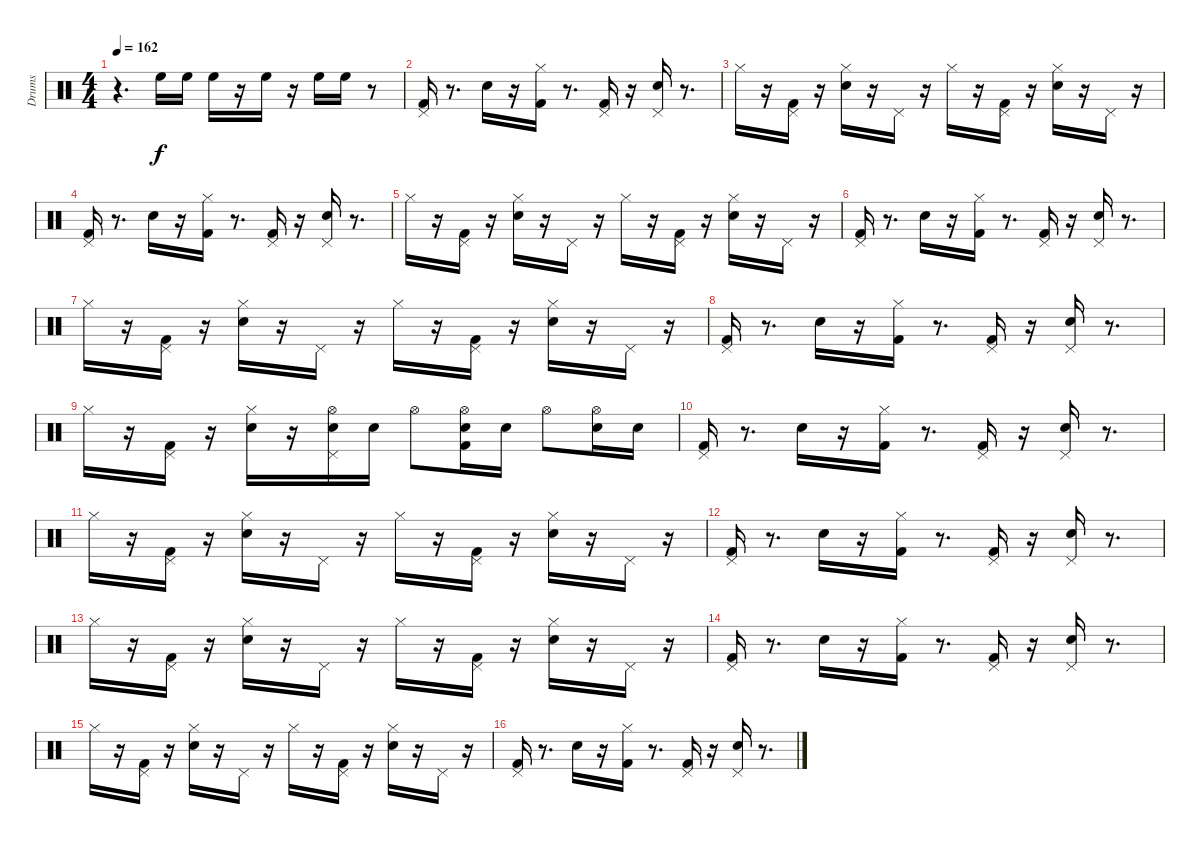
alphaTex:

\track ("Drums" "Drums") {instrument percussion}
\staff {score}
\articulation defaults
\ts (4 4)
\tempo 162
\clef neutral
\ks c
r.4{d dy f} "High Floor Tom (hit)".16 "High Floor Tom (hit)".16 "High Floor Tom (hit)".16 r.16 "High Floor Tom (hit)".16 r.16 "High Floor Tom (hit)".16 "High Floor Tom (hit)".16 r.8 |
("Kick (hit) 2" "Pedal Hi-Hat (hit)").16 r.8{d} "Electric Snare (hit)".16 r.16 ("Kick (hit) 2" "Hi-Hat (closed)").16 r.8{d} ("Kick (hit) 2" "Pedal Hi-Hat (hit)").16 r.16 ("Pedal Hi-Hat (hit)" "Electric Snare (hit)").16 r.8{d} |
"Hi-Hat (closed)".16 r.16 ("Kick (hit) 2" "Pedal Hi-Hat (hit)").16 r.16 ("Electric Snare (hit)" "Hi-Hat (closed)").16 r.16 "Pedal Hi-Hat (hit)".16 r.16 "Hi-Hat (closed)".16 r.16 ("Kick (hit) 2" "Pedal Hi-Hat (hit)").16 r.16 ("Electric Snare (hit)" "Hi-Hat (closed)").16 r.16 "Pedal Hi-Hat (hit)".16 r.16 |
("Kick (hit) 2" "Pedal Hi-Hat (hit)").16 r.8{d} "Electric Snare (hit)".16 r.16 ("Kick (hit) 2" "Hi-Hat (closed)").16 r.8{d} ("Kick (hit) 2" "Pedal Hi-Hat (hit)").16 r.16 ("Pedal Hi-Hat (hit)" "Electric Snare (hit)").16 r.8{d} |
"Hi-Hat (closed)".16 r.16 ("Kick (hit) 2" "Pedal Hi-Hat (hit)").16 r.16 ("Electric Snare (hit)" "Hi-Hat (closed)").16 r.16 "Pedal Hi-Hat (hit)".16 r.16 "Hi-Hat (closed)".16 r.16 ("Kick (hit) 2" "Pedal Hi-Hat (hit)").16 r.16 ("Electric Snare (hit)" "Hi-Hat (closed)").16 r.16 "Pedal Hi-Hat (hit)".16 r.16 |
("Kick (hit) 2" "Pedal Hi-Hat (hit)").16 r.8{d} "Electric Snare (hit)".16 r.16 ("Kick (hit) 2" "Hi-Hat (closed)").16 r.8{d} ("Kick (hit) 2" "Pedal Hi-Hat (hit)").16 r.16 ("Pedal Hi-Hat (hit)" "Electric Snare (hit)").16 r.8{d} |
"Hi-Hat (closed)".16 r.16 ("Kick (hit) 2" "Pedal Hi-Hat (hit)").16 r.16 ("Electric Snare (hit)" "Hi-Hat (closed)").16 r.16 "Pedal Hi-Hat (hit)".16 r.16 "Hi-Hat (closed)".16 r.16 ("Kick (hit) 2" "Pedal Hi-Hat (hit)").16 r.16 ("Electric Snare (hit)" "Hi-Hat (closed)").16 r.16 "Pedal Hi-Hat (hit)".16 r.16 |
("Kick (hit) 2" "Pedal Hi-Hat (hit)").16 r.8{d} "Electric Snare (hit)".16 r.16 ("Kick (hit) 2" "Hi-Hat (closed)").16 r.8{d} ("Kick (hit) 2" "Pedal Hi-Hat (hit)").16 r.16 ("Pedal Hi-Hat (hit)" "Electric Snare (hit)").16 r.8{d} |
"Hi-Hat (closed)".16 r.16 ("Kick (hit) 2" "Pedal Hi-Hat (hit)").16 r.16 ("Electric Snare (hit)" "Hi-Hat (closed)").16 r.16 ("Hi-Hat (open)" "Electric Snare (hit)" "Pedal Hi-Hat (hit)").16 "Electric Snare (hit)".16 "Hi-Hat (open)".8 ("Hi-Hat (open)" "Electric Snare (hit)" "Kick (hit) 2").16 "Electric Snare (hit)".16 "Hi-Hat (open)".8 ("Hi-Hat (open)" "Electric Snare (hit)").16 "Electric Snare (hit)".16 |
("Kick (hit) 2" "Pedal Hi-Hat (hit)").16 r.8{d} "Electric Snare (hit)".16 r.16 ("Kick (hit) 2" "Hi-Hat (closed)").16 r.8{d} ("Kick (hit) 2" "Pedal Hi-Hat (hit)").16 r.16 ("Pedal Hi-Hat (hit)" "Electric Snare (hit)").16 r.8{d} |
"Hi-Hat (closed)".16 r.16 ("Kick (hit) 2" "Pedal Hi-Hat (hit)").16 r.16 ("Electric Snare (hit)" "Hi-Hat (closed)").16 r.16 "Pedal Hi-Hat (hit)".16 r.16 "Hi-Hat (closed)".16 r.16 ("Kick (hit) 2" "Pedal Hi-Hat (hit)").16 r.16 ("Electric Snare (hit)" "Hi-Hat (closed)").16 r.16 "Pedal Hi-Hat (hit)".16 r.16 |
("Kick (hit) 2" "Pedal Hi-Hat (hit)").16 r.8{d} "Electric Snare (hit)".16 r.16 ("Kick (hit) 2" "Hi-Hat (closed)").16 r.8{d} ("Kick (hit) 2" "Pedal Hi-Hat (hit)").16 r.16 ("Pedal Hi-Hat (hit)" "Electric Snare (hit)").16 r.8{d} |
"Hi-Hat (closed)".16 r.16 ("Kick (hit) 2" "Pedal Hi-Hat (hit)").16 r.16 ("Electric Snare (hit)" "Hi-Hat (closed)").16 r.16 "Pedal Hi-Hat (hit)".16 r.16 "Hi-Hat (closed)".16 r.16 ("Kick (hit) 2" "Pedal Hi-Hat (hit)").16 r.16 ("Electric Snare (hit)" "Hi-Hat (closed)").16 r.16 "Pedal Hi-Hat (hit)".16 r.16 |
("Kick (hit) 2" "Pedal Hi-Hat (hit)").16 r.8{d} "Electric Snare (hit)".16 r.16 ("Kick (hit) 2" "Hi-Hat (closed)").16 r.8{d} ("Kick (hit) 2" "Pedal Hi-Hat (hit)").16 r.16 ("Pedal Hi-Hat (hit)" "Electric Snare (hit)").16 r.8{d} |
"Hi-Hat (closed)".16 r.16 ("Kick (hit) 2" "Pedal Hi-Hat (hit)").16 r.16 ("Electric Snare (hit)" "Hi-Hat (closed)").16 r.16 "Pedal Hi-Hat (hit)".16 r.16 "Hi-Hat (closed)".16 r.16 ("Kick (hit) 2" "Pedal Hi-Hat (hit)").16 r.16 ("Electric Snare (hit)" "Hi-Hat (closed)").16 r.16 "Pedal Hi-Hat (hit)".16 r.16 |
("Kick (hit) 2" "Pedal Hi-Hat (hit)").16 r.8{d} "Electric Snare (hit)".16 r.16 ("Kick (hit) 2" "Hi-Hat (closed)").16 r.8{d} ("Kick (hit) 2" "Pedal Hi-Hat (hit)").16 r.16 ("Pedal Hi-Hat (hit)" "Electric Snare (hit)").16 r.8{d}
